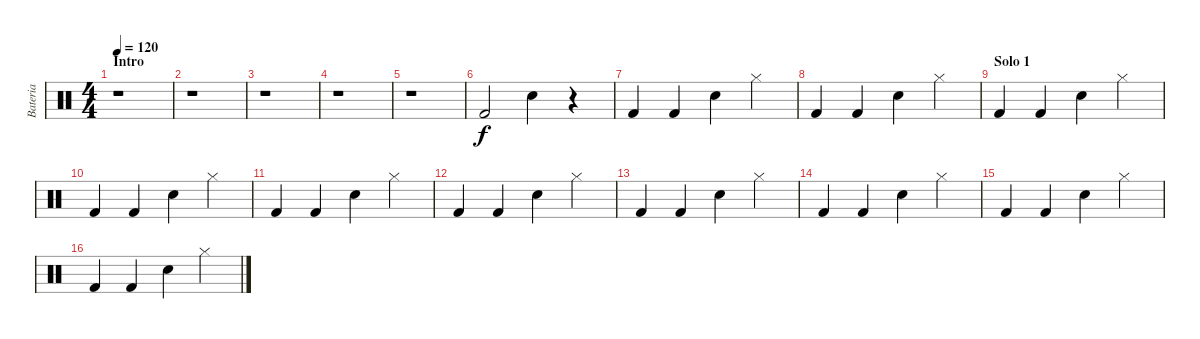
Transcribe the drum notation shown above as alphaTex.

\track ("Bateria" "Bateria") {instrument percussion}
\staff {score}
\articulation defaults
\ts (4 4)
\section ("" "Intro")
\tempo 120
\clef neutral
\ks c
r.1{dy f} |
r.1 |
r.1 |
r.1 |
r.1 |
"Kick (hit) 2".2 "Electric Snare (hit)".4 r.4 |
"Kick (hit) 2".4 "Kick (hit) 2".4 "Electric Snare (hit)".4 "Hi-Hat (closed)".4 |
"Kick (hit) 2".4 "Kick (hit) 2".4 "Electric Snare (hit)".4 "Hi-Hat (closed)".4 |
\section ("" "Solo 1")
"Kick (hit) 2".4 "Kick (hit) 2".4 "Electric Snare (hit)".4 "Hi-Hat (closed)".4 |
"Kick (hit) 2".4 "Kick (hit) 2".4 "Electric Snare (hit)".4 "Hi-Hat (closed)".4 |
"Kick (hit) 2".4 "Kick (hit) 2".4 "Electric Snare (hit)".4 "Hi-Hat (closed)".4 |
"Kick (hit) 2".4 "Kick (hit) 2".4 "Electric Snare (hit)".4 "Hi-Hat (closed)".4 |
"Kick (hit) 2".4 "Kick (hit) 2".4 "Electric Snare (hit)".4 "Hi-Hat (closed)".4 |
"Kick (hit) 2".4 "Kick (hit) 2".4 "Electric Snare (hit)".4 "Hi-Hat (closed)".4 |
"Kick (hit) 2".4 "Kick (hit) 2".4 "Electric Snare (hit)".4 "Hi-Hat (closed)".4 |
"Kick (hit) 2".4 "Kick (hit) 2".4 "Electric Snare (hit)".4 "Hi-Hat (closed)".4
